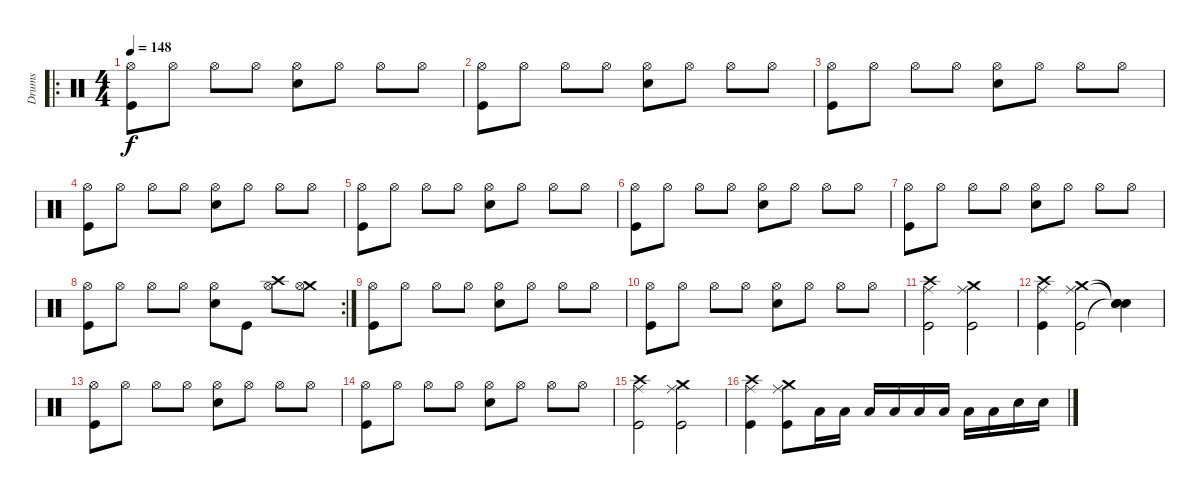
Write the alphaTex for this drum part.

\track ("Drums" "Drums") {instrument percussion}
\staff {score}
\articulation defaults
\ro
\ts (4 4)
\tempo 148
\clef neutral
\ks c
("Hi-Hat (open)" "Kick (hit)").8{dy f} "Hi-Hat (open)".8 "Hi-Hat (open)".8 "Hi-Hat (open)".8 ("Snare (hit) 2" "Hi-Hat (open)").8 "Hi-Hat (open)".8 "Hi-Hat (open)".8 "Hi-Hat (open)".8 |
("Hi-Hat (open)" "Kick (hit)").8 "Hi-Hat (open)".8 "Hi-Hat (open)".8 "Hi-Hat (open)".8 ("Snare (hit) 2" "Hi-Hat (open)").8 "Hi-Hat (open)".8 "Hi-Hat (open)".8 "Hi-Hat (open)".8 |
("Hi-Hat (open)" "Kick (hit)").8 "Hi-Hat (open)".8 "Hi-Hat (open)".8 "Hi-Hat (open)".8 ("Snare (hit) 2" "Hi-Hat (open)").8 "Hi-Hat (open)".8 "Hi-Hat (open)".8 "Hi-Hat (open)".8 |
("Hi-Hat (open)" "Kick (hit)").8 "Hi-Hat (open)".8 "Hi-Hat (open)".8 "Hi-Hat (open)".8 ("Snare (hit) 2" "Hi-Hat (open)").8 "Hi-Hat (open)".8 "Hi-Hat (open)".8 "Hi-Hat (open)".8 |
("Hi-Hat (open)" "Kick (hit)").8 "Hi-Hat (open)".8 "Hi-Hat (open)".8 "Hi-Hat (open)".8 ("Snare (hit) 2" "Hi-Hat (open)").8 "Hi-Hat (open)".8 "Hi-Hat (open)".8 "Hi-Hat (open)".8 |
("Hi-Hat (open)" "Kick (hit)").8 "Hi-Hat (open)".8 "Hi-Hat (open)".8 "Hi-Hat (open)".8 ("Snare (hit) 2" "Hi-Hat (open)").8 "Hi-Hat (open)".8 "Hi-Hat (open)".8 "Hi-Hat (open)".8 |
("Hi-Hat (open)" "Kick (hit)").8 "Hi-Hat (open)".8 "Hi-Hat (open)".8 "Hi-Hat (open)".8 ("Snare (hit) 2" "Hi-Hat (open)").8 "Hi-Hat (open)".8 "Hi-Hat (open)".8 "Hi-Hat (open)".8 |
\rc 2
("Hi-Hat (open)" "Kick (hit)").8 "Hi-Hat (open)".8 "Hi-Hat (open)".8 "Hi-Hat (open)".8 ("Snare (hit) 2" "Hi-Hat (open)").8 "Kick (hit)".8 ("Crash high (hit)" "Hi-Hat (open)").8 ("Crash medium (hit)" "Hi-Hat (open)").8 |
("Hi-Hat (open)" "Kick (hit)").8 "Hi-Hat (open)".8 "Hi-Hat (open)".8 "Hi-Hat (open)".8 ("Snare (hit) 2" "Hi-Hat (open)").8 "Hi-Hat (open)".8 "Hi-Hat (open)".8 "Hi-Hat (open)".8 |
("Hi-Hat (open)" "Kick (hit)").8 "Hi-Hat (open)".8 "Hi-Hat (open)".8 "Hi-Hat (open)".8 ("Snare (hit) 2" "Hi-Hat (open)").8 "Hi-Hat (open)".8 "Hi-Hat (open)".8 "Hi-Hat (open)".8 |
("Ride (middle)" "Crash high (hit)" "Kick (hit)").2 ("Ride (middle)" "Crash medium (hit)" "Kick (hit)").2 |
("Ride (middle)" "Crash high (hit)" "Kick (hit)").4 ("Ride (middle)" "Crash medium (hit)" "Kick (hit)").2 ("Snare (hit)"{t} "Snare (hit)"{t} "Snare (hit)"{t}).4 |
("Hi-Hat (open)" "Kick (hit)").8 "Hi-Hat (open)".8 "Hi-Hat (open)".8 "Hi-Hat (open)".8 ("Snare (hit) 2" "Hi-Hat (open)").8 "Hi-Hat (open)".8 "Hi-Hat (open)".8 "Hi-Hat (open)".8 |
("Hi-Hat (open)" "Kick (hit)").8 "Hi-Hat (open)".8 "Hi-Hat (open)".8 "Hi-Hat (open)".8 ("Snare (hit) 2" "Hi-Hat (open)").8 "Hi-Hat (open)".8 "Hi-Hat (open)".8 "Hi-Hat (open)".8 |
("Ride (middle)" "Crash high (hit)" "Kick (hit)").2 ("Ride (middle)" "Crash medium (hit)" "Kick (hit)").2 |
("Ride (middle)" "Crash high (hit)" "Kick (hit)").4 ("Ride (middle)" "Crash medium (hit)" "Kick (hit)").8 "Low Tom (hit)".16 "Low Tom (hit)".16 "Low Tom (hit)".16 "Low Tom (hit)".16 "Low Tom (hit)".16 "Low Tom (hit)".16 "Low Tom (hit)".16 "Low Tom (hit)".16 "Snare (hit) 2".16 "Snare (hit) 2".16
